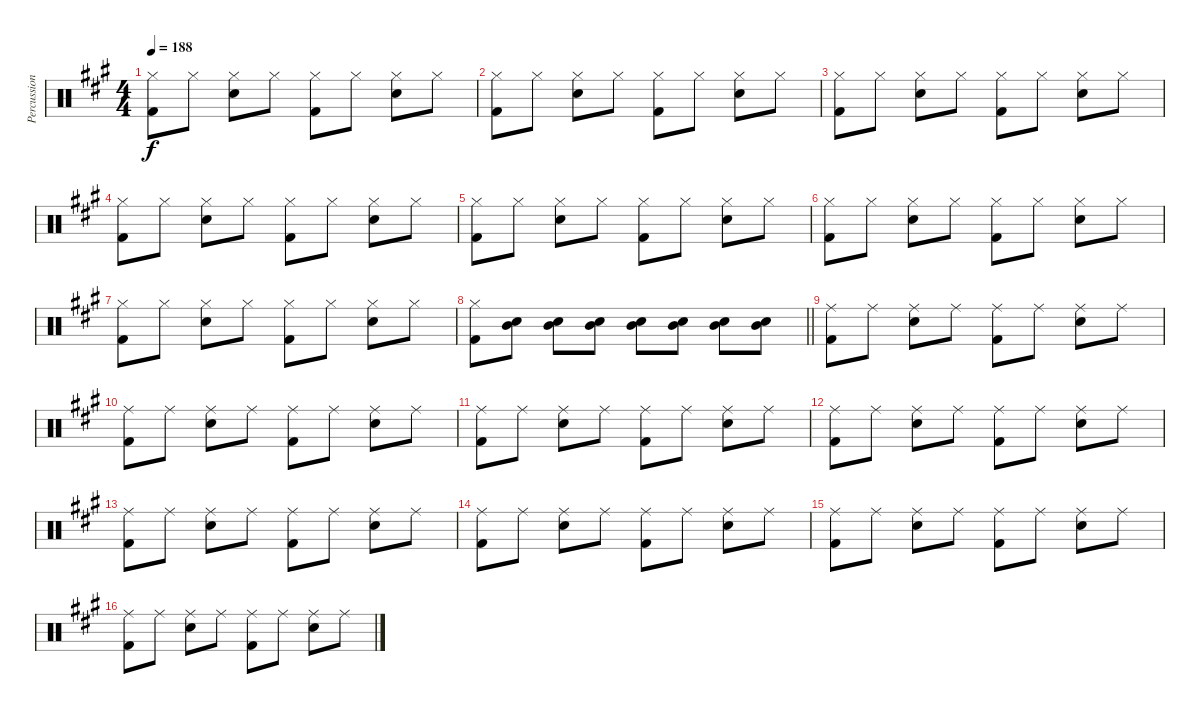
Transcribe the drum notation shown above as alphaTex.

\track ("Percussion" "Percussion") {instrument percussion}
\staff {score}
\articulation defaults
\ts (4 4)
\tempo 188
\clef neutral
\ks a
("Hi-Hat (closed)" "Kick (hit) 2").8{dy f} "Hi-Hat (closed)".8 ("Hi-Hat (closed)" "Snare (hit) 2").8 "Hi-Hat (closed)".8 ("Hi-Hat (closed)" "Kick (hit) 2").8 "Hi-Hat (closed)".8 ("Hi-Hat (closed)" "Snare (hit) 2").8 "Hi-Hat (closed)".8 |
("Hi-Hat (closed)" "Kick (hit) 2").8 "Hi-Hat (closed)".8 ("Hi-Hat (closed)" "Snare (hit) 2").8 "Hi-Hat (closed)".8 ("Hi-Hat (closed)" "Kick (hit) 2").8 "Hi-Hat (closed)".8 ("Hi-Hat (closed)" "Snare (hit) 2").8 "Hi-Hat (closed)".8 |
("Hi-Hat (closed)" "Kick (hit) 2").8 "Hi-Hat (closed)".8 ("Hi-Hat (closed)" "Snare (hit) 2").8 "Hi-Hat (closed)".8 ("Hi-Hat (closed)" "Kick (hit) 2").8 "Hi-Hat (closed)".8 ("Hi-Hat (closed)" "Snare (hit) 2").8 "Hi-Hat (closed)".8 |
("Hi-Hat (closed)" "Kick (hit) 2").8 "Hi-Hat (closed)".8 ("Hi-Hat (closed)" "Snare (hit) 2").8 "Hi-Hat (closed)".8 ("Hi-Hat (closed)" "Kick (hit) 2").8 "Hi-Hat (closed)".8 ("Hi-Hat (closed)" "Snare (hit) 2").8 "Hi-Hat (closed)".8 |
("Hi-Hat (closed)" "Kick (hit) 2").8 "Hi-Hat (closed)".8 ("Hi-Hat (closed)" "Snare (hit) 2").8 "Hi-Hat (closed)".8 ("Hi-Hat (closed)" "Kick (hit) 2").8 "Hi-Hat (closed)".8 ("Hi-Hat (closed)" "Snare (hit) 2").8 "Hi-Hat (closed)".8 |
("Hi-Hat (closed)" "Kick (hit) 2").8 "Hi-Hat (closed)".8 ("Hi-Hat (closed)" "Snare (hit) 2").8 "Hi-Hat (closed)".8 ("Hi-Hat (closed)" "Kick (hit) 2").8 "Hi-Hat (closed)".8 ("Hi-Hat (closed)" "Snare (hit) 2").8 "Hi-Hat (closed)".8 |
("Hi-Hat (closed)" "Kick (hit) 2").8 "Hi-Hat (closed)".8 ("Hi-Hat (closed)" "Snare (hit) 2").8 "Hi-Hat (closed)".8 ("Hi-Hat (closed)" "Kick (hit) 2").8 "Hi-Hat (closed)".8 ("Hi-Hat (closed)" "Snare (hit) 2").8 "Hi-Hat (closed)".8 |
\barLineRight lightlight
("Hi-Hat (closed)" "Kick (hit) 2").8 ("Mid Tom (hit)" "Snare (hit) 2").8 ("Mid Tom (hit)" "Snare (hit) 2").8 ("Mid Tom (hit)" "Snare (hit) 2").8 ("Mid Tom (hit)" "Snare (hit) 2").8 ("Mid Tom (hit)" "Snare (hit) 2").8 ("Mid Tom (hit)" "Snare (hit) 2").8 ("Mid Tom (hit)" "Snare (hit) 2").8 |
("Ride (middle)" "Kick (hit) 2").8 "Ride (middle)".8 ("Ride (middle)" "Snare (hit) 2").8 "Ride (middle)".8 ("Ride (middle)" "Kick (hit) 2").8 "Ride (middle)".8 ("Ride (middle)" "Snare (hit) 2").8 "Ride (middle)".8 |
("Ride (middle)" "Kick (hit) 2").8 "Ride (middle)".8 ("Ride (middle)" "Snare (hit) 2").8 "Ride (middle)".8 ("Ride (middle)" "Kick (hit) 2").8 "Ride (middle)".8 ("Ride (middle)" "Snare (hit) 2").8 "Ride (middle)".8 |
("Ride (middle)" "Kick (hit) 2").8 "Ride (middle)".8 ("Ride (middle)" "Snare (hit) 2").8 "Ride (middle)".8 ("Ride (middle)" "Kick (hit) 2").8 "Ride (middle)".8 ("Ride (middle)" "Snare (hit) 2").8 "Ride (middle)".8 |
("Ride (middle)" "Kick (hit) 2").8 "Ride (middle)".8 ("Ride (middle)" "Snare (hit) 2").8 "Ride (middle)".8 ("Ride (middle)" "Kick (hit) 2").8 "Ride (middle)".8 ("Ride (middle)" "Snare (hit) 2").8 "Ride (middle)".8 |
("Ride (middle)" "Kick (hit) 2").8 "Ride (middle)".8 ("Ride (middle)" "Snare (hit) 2").8 "Ride (middle)".8 ("Ride (middle)" "Kick (hit) 2").8 "Ride (middle)".8 ("Ride (middle)" "Snare (hit) 2").8 "Ride (middle)".8 |
("Ride (middle)" "Kick (hit) 2").8 "Ride (middle)".8 ("Ride (middle)" "Snare (hit) 2").8 "Ride (middle)".8 ("Ride (middle)" "Kick (hit) 2").8 "Ride (middle)".8 ("Ride (middle)" "Snare (hit) 2").8 "Ride (middle)".8 |
("Ride (middle)" "Kick (hit) 2").8 "Ride (middle)".8 ("Ride (middle)" "Snare (hit) 2").8 "Ride (middle)".8 ("Ride (middle)" "Kick (hit) 2").8 "Ride (middle)".8 ("Ride (middle)" "Snare (hit) 2").8 "Ride (middle)".8 |
("Ride (middle)" "Kick (hit) 2").8 "Ride (middle)".8 ("Ride (middle)" "Snare (hit) 2").8 "Ride (middle)".8 ("Ride (middle)" "Kick (hit) 2").8 "Ride (middle)".8 ("Ride (middle)" "Snare (hit) 2").8 "Ride (middle)".8
